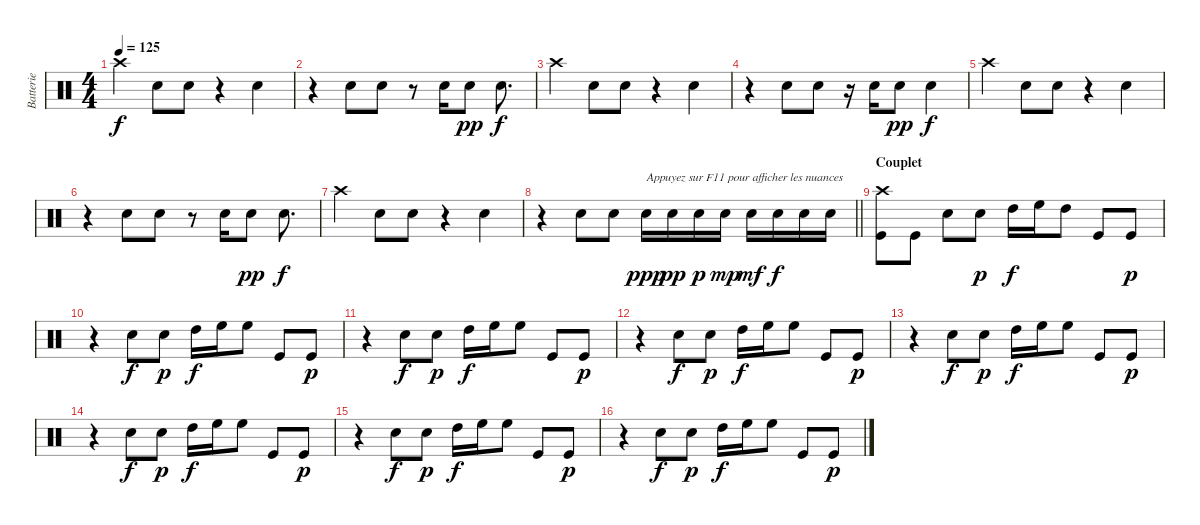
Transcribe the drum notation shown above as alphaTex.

\track ("Batterie" "Batterie") {instrument percussion}
\staff {score}
\articulation defaults
\ts (4 4)
\tempo 125
\clef neutral
\ks c "Crash high (hit)".4{dy f} "Snare (hit) 2".8 "Snare (hit) 2".8
r.4 "Snare (hit) 2".4 |
r.4 "Snare (hit) 2".8 "Snare (hit) 2".8 r.8 "Snare (hit) 2".16 "Snare (hit) 2".8{dy pp} "Snare (hit) 2".8{d dy f} |
"Crash high (hit)".4 "Snare (hit) 2".8 "Snare (hit) 2".8 r.4 "Snare (hit) 2".4 |
r.4 "Snare (hit) 2".8 "Snare (hit) 2".8 r.16 "Snare (hit) 2".16 "Snare (hit) 2".8{dy pp} "Snare (hit) 2".4{dy f} |
"Crash high (hit)".4 "Snare (hit) 2".8 "Snare (hit) 2".8 r.4 "Snare (hit) 2".4 |
r.4 "Snare (hit) 2".8 "Snare (hit) 2".8 r.8 "Snare (hit) 2".16 "Snare (hit) 2".8{dy pp} "Snare (hit) 2".8{d dy f} |
"Crash high (hit)".4 "Snare (hit) 2".8 "Snare (hit) 2".8 r.4 "Snare (hit) 2".4 |
\barLineRight lightlight
r.4 "Snare (hit) 2".8 "Snare (hit) 2".8 "Snare (hit) 2".16{txt "Appuyez sur F11 pour afficher les nuances" dy ppp} "Snare (hit) 2".16{dy pp} "Snare (hit) 2".16{dy p} "Snare (hit) 2".16{dy mp} "Snare (hit) 2".16{dy mf} "Snare (hit) 2".16{dy f} "Snare (hit) 2".16 "Snare (hit) 2".16 |
\section ("" "Couplet")
("Kick (hit)" "Crash high (hit)").8 "Kick (hit)".8 "Snare (hit) 2".8 "Snare (hit) 2".8{dy p} "High Tom (hit)".16{dy f} "High Floor Tom (hit)".16 "High Tom (hit)".8 "Kick (hit)".8 "Kick (hit)".8{dy p} |
r.4 "Snare (hit) 2".8{dy f} "Snare (hit) 2".8{dy p} "High Tom (hit)".16{dy f} "High Floor Tom (hit)".16 "High Floor Tom (hit)".8 "Kick (hit)".8 "Kick (hit)".8{dy p} |
r.4 "Snare (hit) 2".8{dy f} "Snare (hit) 2".8{dy p} "High Tom (hit)".16{dy f} "High Floor Tom (hit)".16 "High Floor Tom (hit)".8 "Kick (hit)".8 "Kick (hit)".8{dy p} |
r.4 "Snare (hit) 2".8{dy f} "Snare (hit) 2".8{dy p} "High Tom (hit)".16{dy f} "High Floor Tom (hit)".16 "High Floor Tom (hit)".8 "Kick (hit)".8 "Kick (hit)".8{dy p} |
r.4 "Snare (hit) 2".8{dy f} "Snare (hit) 2".8{dy p} "High Tom (hit)".16{dy f} "High Floor Tom (hit)".16 "High Floor Tom (hit)".8 "Kick (hit)".8 "Kick (hit)".8{dy p} |
r.4 "Snare (hit) 2".8{dy f} "Snare (hit) 2".8{dy p} "High Tom (hit)".16{dy f} "High Floor Tom (hit)".16 "High Floor Tom (hit)".8 "Kick (hit)".8 "Kick (hit)".8{dy p} |
r.4 "Snare (hit) 2".8{dy f} "Snare (hit) 2".8{dy p} "High Tom (hit)".16{dy f} "High Floor Tom (hit)".16 "High Floor Tom (hit)".8 "Kick (hit)".8 "Kick (hit)".8{dy p} |
r.4 "Snare (hit) 2".8{dy f} "Snare (hit) 2".8{dy p} "High Tom (hit)".16{dy f} "High Floor Tom (hit)".16 "High Floor Tom (hit)".8 "Kick (hit)".8 "Kick (hit)".8{dy p}
